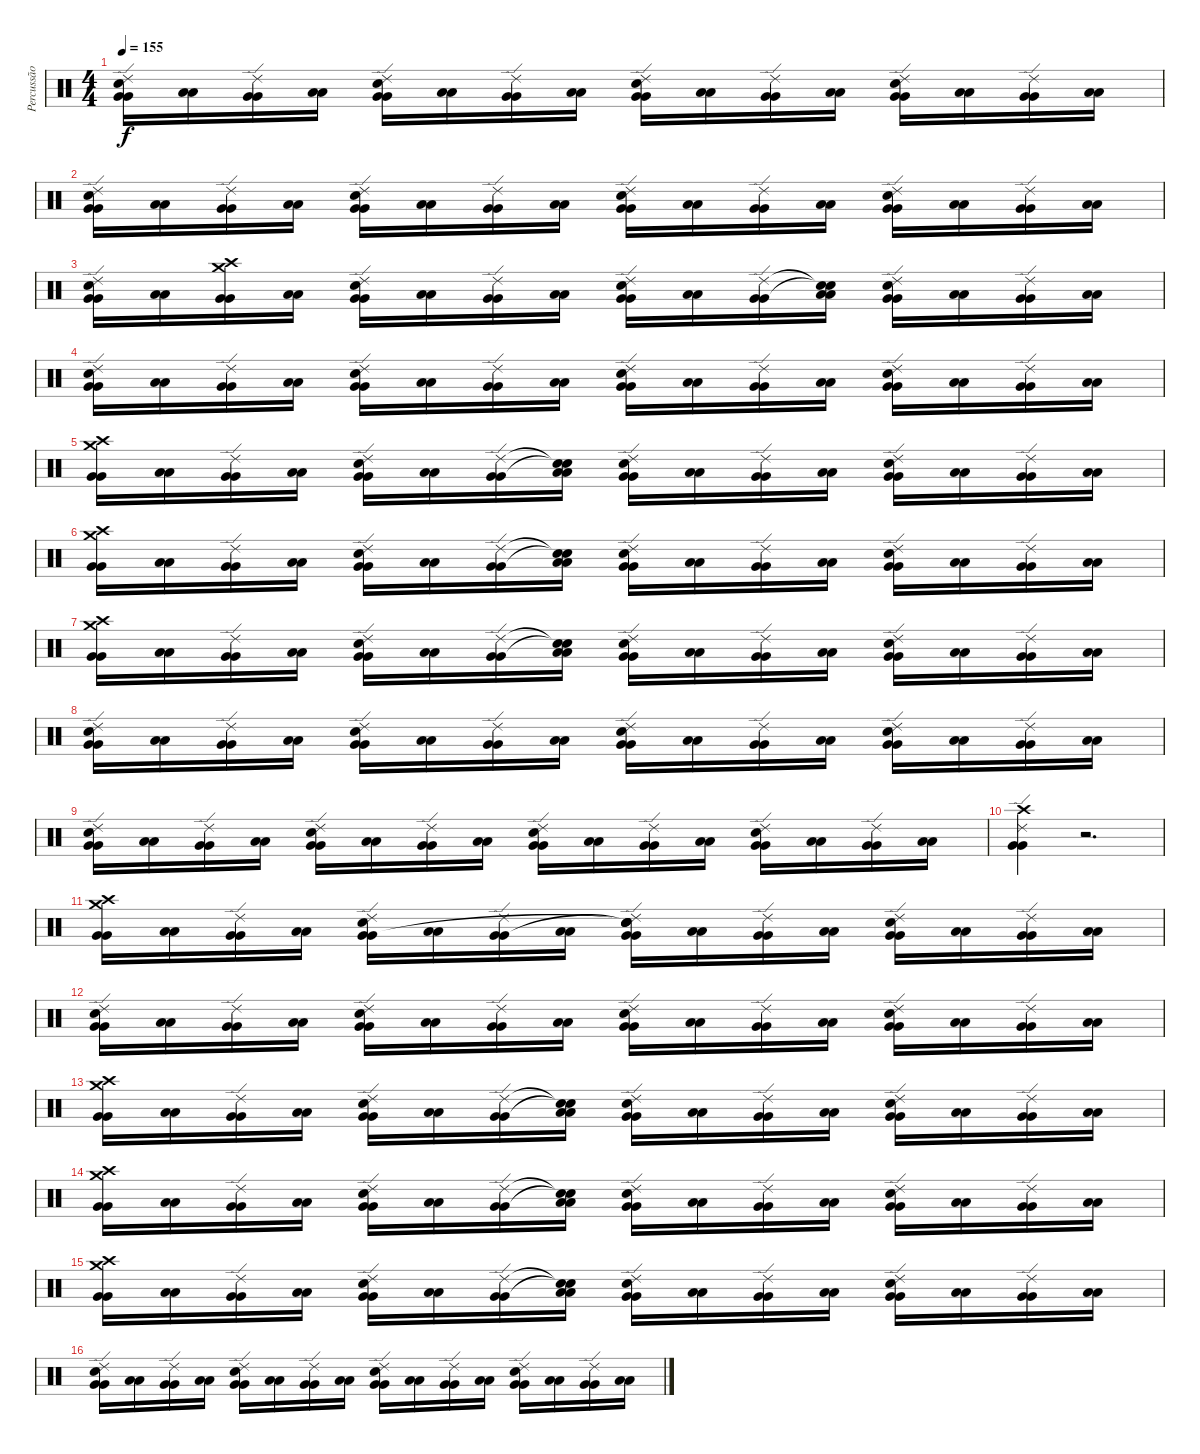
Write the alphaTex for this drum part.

\track ("Percussão" "Percussão") {instrument percussion}
\staff {score}
\articulation defaults
\ts (4 4)
\tempo 155
\clef neutral
\ks c
("Electric Snare (hit)" "Ride (edge) 2" "Very Low Tom (hit)" "Very Low Tom (hit)").16{dy f} ("Low Floor Tom (hit)" "Low Floor Tom (hit)").16 ("Ride (edge) 2" "Very Low Tom (hit)" "Very Low Tom (hit)").16 ("Low Floor Tom (hit)" "Low Floor Tom (hit)").16 ("Electric Snare (hit)" "Ride (edge) 2" "Very Low Tom (hit)" "Very Low Tom (hit)").16 ("Low Floor Tom (hit)" "Low Floor Tom (hit)").16 ("Ride (edge) 2" "Very Low Tom (hit)" "Very Low Tom (hit)").16 ("Low Floor Tom (hit)" "Low Floor Tom (hit)").16 ("Electric Snare (hit)" "Ride (edge) 2" "Very Low Tom (hit)" "Very Low Tom (hit)").16 ("Low Floor Tom (hit)" "Low Floor Tom (hit)").16 ("Ride (edge) 2" "Very Low Tom (hit)" "Very Low Tom (hit)").16 ("Low Floor Tom (hit)" "Low Floor Tom (hit)").16 ("Electric Snare (hit)" "Ride (edge) 2" "Very Low Tom (hit)" "Very Low Tom (hit)").16 ("Low Floor Tom (hit)" "Low Floor Tom (hit)").16 ("Ride (edge) 2" "Very Low Tom (hit)" "Very Low Tom (hit)").16 ("Low Floor Tom (hit)" "Low Floor Tom (hit)").16 |
("Electric Snare (hit)" "Ride (edge) 2" "Very Low Tom (hit)" "Very Low Tom (hit)").16 ("Low Floor Tom (hit)" "Low Floor Tom (hit)").16 ("Ride (edge) 2" "Very Low Tom (hit)" "Very Low Tom (hit)").16 ("Low Floor Tom (hit)" "Low Floor Tom (hit)").16 ("Electric Snare (hit)" "Ride (edge) 2" "Very Low Tom (hit)" "Very Low Tom (hit)").16 ("Low Floor Tom (hit)" "Low Floor Tom (hit)").16 ("Ride (edge) 2" "Very Low Tom (hit)" "Very Low Tom (hit)").16 ("Low Floor Tom (hit)" "Low Floor Tom (hit)").16 ("Electric Snare (hit)" "Ride (edge) 2" "Very Low Tom (hit)" "Very Low Tom (hit)").16 ("Low Floor Tom (hit)" "Low Floor Tom (hit)").16 ("Ride (edge) 2" "Very Low Tom (hit)" "Very Low Tom (hit)").16 ("Low Floor Tom (hit)" "Low Floor Tom (hit)").16 ("Electric Snare (hit)" "Ride (edge) 2" "Very Low Tom (hit)" "Very Low Tom (hit)").16 ("Low Floor Tom (hit)" "Low Floor Tom (hit)").16 ("Ride (edge) 2" "Very Low Tom (hit)" "Very Low Tom (hit)").16 ("Low Floor Tom (hit)" "Low Floor Tom (hit)").16 |
("Electric Snare (hit)" "Ride (edge) 2" "Very Low Tom (hit)" "Very Low Tom (hit)").16 ("Low Floor Tom (hit)" "Low Floor Tom (hit)").16 ("Crash medium (hit)" "Crash high (hit)" "Very Low Tom (hit)" "Very Low Tom (hit)").16 ("Low Floor Tom (hit)" "Low Floor Tom (hit)").16 ("Electric Snare (hit)" "Ride (edge) 2" "Very Low Tom (hit)" "Very Low Tom (hit)").16 ("Low Floor Tom (hit)" "Low Floor Tom (hit)").16 ("Ride (edge) 2" "Very Low Tom (hit)" "Very Low Tom (hit)").16 ("Low Floor Tom (hit)" "Low Floor Tom (hit)").16 ("Electric Snare (hit)" "Ride (edge) 2" "Very Low Tom (hit)" "Very Low Tom (hit)").16 ("Low Floor Tom (hit)" "Low Floor Tom (hit)").16 ("Ride (edge) 2" "Very Low Tom (hit)" "Very Low Tom (hit)").16 ("Snare (hit)"{t} "Snare (hit)"{t} "Low Floor Tom (hit)" "Low Floor Tom (hit)").16 ("Electric Snare (hit)" "Ride (edge) 2" "Very Low Tom (hit)" "Very Low Tom (hit)").16 ("Low Floor Tom (hit)" "Low Floor Tom (hit)").16 ("Ride (edge) 2" "Very Low Tom (hit)" "Very Low Tom (hit)").16 ("Low Floor Tom (hit)" "Low Floor Tom (hit)").16 |
("Electric Snare (hit)" "Ride (edge) 2" "Very Low Tom (hit)" "Very Low Tom (hit)").16 ("Low Floor Tom (hit)" "Low Floor Tom (hit)").16 ("Ride (edge) 2" "Very Low Tom (hit)" "Very Low Tom (hit)").16 ("Low Floor Tom (hit)" "Low Floor Tom (hit)").16 ("Electric Snare (hit)" "Ride (edge) 2" "Very Low Tom (hit)" "Very Low Tom (hit)").16 ("Low Floor Tom (hit)" "Low Floor Tom (hit)").16 ("Ride (edge) 2" "Very Low Tom (hit)" "Very Low Tom (hit)").16 ("Low Floor Tom (hit)" "Low Floor Tom (hit)").16 ("Electric Snare (hit)" "Ride (edge) 2" "Very Low Tom (hit)" "Very Low Tom (hit)").16 ("Low Floor Tom (hit)" "Low Floor Tom (hit)").16 ("Ride (edge) 2" "Very Low Tom (hit)" "Very Low Tom (hit)").16 ("Low Floor Tom (hit)" "Low Floor Tom (hit)").16 ("Electric Snare (hit)" "Ride (edge) 2" "Very Low Tom (hit)" "Very Low Tom (hit)").16 ("Low Floor Tom (hit)" "Low Floor Tom (hit)").16 ("Ride (edge) 2" "Very Low Tom (hit)" "Very Low Tom (hit)").16 ("Low Floor Tom (hit)" "Low Floor Tom (hit)").16 |
("Crash high (hit)" "Crash medium (hit)" "Very Low Tom (hit)" "Very Low Tom (hit)").16 ("Low Floor Tom (hit)" "Low Floor Tom (hit)").16 ("Ride (edge) 2" "Very Low Tom (hit)" "Very Low Tom (hit)").16 ("Low Floor Tom (hit)" "Low Floor Tom (hit)").16 ("Electric Snare (hit)" "Ride (edge) 2" "Very Low Tom (hit)" "Very Low Tom (hit)").16 ("Low Floor Tom (hit)" "Low Floor Tom (hit)").16 ("Ride (edge) 2" "Very Low Tom (hit)" "Very Low Tom (hit)").16 ("Snare (hit)"{t} "Snare (hit)"{t} "Low Floor Tom (hit)" "Low Floor Tom (hit)").16 ("Electric Snare (hit)" "Ride (edge) 2" "Very Low Tom (hit)" "Very Low Tom (hit)").16 ("Low Floor Tom (hit)" "Low Floor Tom (hit)").16 ("Ride (edge) 2" "Very Low Tom (hit)" "Very Low Tom (hit)").16 ("Low Floor Tom (hit)" "Low Floor Tom (hit)").16 ("Electric Snare (hit)" "Ride (edge) 2" "Very Low Tom (hit)" "Very Low Tom (hit)").16 ("Low Floor Tom (hit)" "Low Floor Tom (hit)").16 ("Ride (edge) 2" "Very Low Tom (hit)" "Very Low Tom (hit)").16 ("Low Floor Tom (hit)" "Low Floor Tom (hit)").16 |
("Crash high (hit)" "Crash medium (hit)" "Very Low Tom (hit)" "Very Low Tom (hit)").16 ("Low Floor Tom (hit)" "Low Floor Tom (hit)").16 ("Ride (edge) 2" "Very Low Tom (hit)" "Very Low Tom (hit)").16 ("Low Floor Tom (hit)" "Low Floor Tom (hit)").16 ("Electric Snare (hit)" "Ride (edge) 2" "Very Low Tom (hit)" "Very Low Tom (hit)").16 ("Low Floor Tom (hit)" "Low Floor Tom (hit)").16 ("Ride (edge) 2" "Very Low Tom (hit)" "Very Low Tom (hit)").16 ("Snare (hit)"{t} "Snare (hit)"{t} "Low Floor Tom (hit)" "Low Floor Tom (hit)").16 ("Electric Snare (hit)" "Ride (edge) 2" "Very Low Tom (hit)" "Very Low Tom (hit)").16 ("Low Floor Tom (hit)" "Low Floor Tom (hit)").16 ("Ride (edge) 2" "Very Low Tom (hit)" "Very Low Tom (hit)").16 ("Low Floor Tom (hit)" "Low Floor Tom (hit)").16 ("Electric Snare (hit)" "Ride (edge) 2" "Very Low Tom (hit)" "Very Low Tom (hit)").16 ("Low Floor Tom (hit)" "Low Floor Tom (hit)").16 ("Ride (edge) 2" "Very Low Tom (hit)" "Very Low Tom (hit)").16 ("Low Floor Tom (hit)" "Low Floor Tom (hit)").16 |
("Crash high (hit)" "Crash medium (hit)" "Very Low Tom (hit)" "Very Low Tom (hit)").16 ("Low Floor Tom (hit)" "Low Floor Tom (hit)").16 ("Ride (edge) 2" "Very Low Tom (hit)" "Very Low Tom (hit)").16 ("Low Floor Tom (hit)" "Low Floor Tom (hit)").16 ("Electric Snare (hit)" "Ride (edge) 2" "Very Low Tom (hit)" "Very Low Tom (hit)").16 ("Low Floor Tom (hit)" "Low Floor Tom (hit)").16 ("Ride (edge) 2" "Very Low Tom (hit)" "Very Low Tom (hit)").16 ("Snare (hit)"{t} "Snare (hit)"{t} "Low Floor Tom (hit)" "Low Floor Tom (hit)").16 ("Electric Snare (hit)" "Ride (edge) 2" "Very Low Tom (hit)" "Very Low Tom (hit)").16 ("Low Floor Tom (hit)" "Low Floor Tom (hit)").16 ("Ride (edge) 2" "Very Low Tom (hit)" "Very Low Tom (hit)").16 ("Low Floor Tom (hit)" "Low Floor Tom (hit)").16 ("Electric Snare (hit)" "Ride (edge) 2" "Very Low Tom (hit)" "Very Low Tom (hit)").16 ("Low Floor Tom (hit)" "Low Floor Tom (hit)").16 ("Ride (edge) 2" "Very Low Tom (hit)" "Very Low Tom (hit)").16 ("Low Floor Tom (hit)" "Low Floor Tom (hit)").16 |
("Electric Snare (hit)" "Ride (edge) 2" "Very Low Tom (hit)" "Very Low Tom (hit)").16 ("Low Floor Tom (hit)" "Low Floor Tom (hit)").16 ("Ride (edge) 2" "Very Low Tom (hit)" "Very Low Tom (hit)").16 ("Low Floor Tom (hit)" "Low Floor Tom (hit)").16 ("Electric Snare (hit)" "Ride (edge) 2" "Very Low Tom (hit)" "Very Low Tom (hit)").16 ("Low Floor Tom (hit)" "Low Floor Tom (hit)").16 ("Ride (edge) 2" "Very Low Tom (hit)" "Very Low Tom (hit)").16 ("Low Floor Tom (hit)" "Low Floor Tom (hit)").16 ("Electric Snare (hit)" "Ride (edge) 2" "Very Low Tom (hit)" "Very Low Tom (hit)").16 ("Low Floor Tom (hit)" "Low Floor Tom (hit)").16 ("Ride (edge) 2" "Very Low Tom (hit)" "Very Low Tom (hit)").16 ("Low Floor Tom (hit)" "Low Floor Tom (hit)").16 ("Electric Snare (hit)" "Ride (edge) 2" "Very Low Tom (hit)" "Very Low Tom (hit)").16 ("Low Floor Tom (hit)" "Low Floor Tom (hit)").16 ("Ride (edge) 2" "Very Low Tom (hit)" "Very Low Tom (hit)").16 ("Low Floor Tom (hit)" "Low Floor Tom (hit)").16 |
("Electric Snare (hit)" "Ride (edge) 2" "Very Low Tom (hit)" "Very Low Tom (hit)").16 ("Low Floor Tom (hit)" "Low Floor Tom (hit)").16 ("Ride (edge) 2" "Very Low Tom (hit)" "Very Low Tom (hit)").16 ("Low Floor Tom (hit)" "Low Floor Tom (hit)").16 ("Electric Snare (hit)" "Ride (edge) 2" "Very Low Tom (hit)" "Very Low Tom (hit)").16 ("Low Floor Tom (hit)" "Low Floor Tom (hit)").16 ("Ride (edge) 2" "Very Low Tom (hit)" "Very Low Tom (hit)").16 ("Low Floor Tom (hit)" "Low Floor Tom (hit)").16 ("Electric Snare (hit)" "Ride (edge) 2" "Very Low Tom (hit)" "Very Low Tom (hit)").16 ("Low Floor Tom (hit)" "Low Floor Tom (hit)").16 ("Ride (edge) 2" "Very Low Tom (hit)" "Very Low Tom (hit)").16 ("Low Floor Tom (hit)" "Low Floor Tom (hit)").16 ("Electric Snare (hit)" "Ride (edge) 2" "Very Low Tom (hit)" "Very Low Tom (hit)").16 ("Low Floor Tom (hit)" "Low Floor Tom (hit)").16 ("Ride (edge) 2" "Very Low Tom (hit)" "Very Low Tom (hit)").16 ("Low Floor Tom (hit)" "Low Floor Tom (hit)").16 |
("Crash high (hit)" "Ride (edge) 2" "Very Low Tom (hit)" "Very Low Tom (hit)").4 r.2{d} |
("Crash medium (hit)" "Crash high (hit)" "Very Low Tom (hit)" "Very Low Tom (hit)").16 ("Low Floor Tom (hit)" "Low Floor Tom (hit)").16 ("Ride (edge) 2" "Very Low Tom (hit)" "Very Low Tom (hit)").16 ("Low Floor Tom (hit)" "Low Floor Tom (hit)").16 ("Electric Snare (hit)" "Ride (edge) 2" "Very Low Tom (hit)" "Very Low Tom (hit)").16 ("Low Floor Tom (hit)" "Low Floor Tom (hit)").16 ("Ride (edge) 2" "Very Low Tom (hit)" "Very Low Tom (hit)").16 ("Low Floor Tom (hit)" "Low Floor Tom (hit)").16 ("Electric Snare (hit)" "Ride (edge) 2" "Snare (hit)"{t} "Snare (hit)"{t} "Very Low Tom (hit)" "Very Low Tom (hit)").16 ("Low Floor Tom (hit)" "Low Floor Tom (hit)").16 ("Ride (edge) 2" "Very Low Tom (hit)" "Very Low Tom (hit)").16 ("Low Floor Tom (hit)" "Low Floor Tom (hit)").16 ("Electric Snare (hit)" "Ride (edge) 2" "Very Low Tom (hit)" "Very Low Tom (hit)").16 ("Low Floor Tom (hit)" "Low Floor Tom (hit)").16 ("Ride (edge) 2" "Very Low Tom (hit)" "Very Low Tom (hit)").16 ("Low Floor Tom (hit)" "Low Floor Tom (hit)").16 |
("Electric Snare (hit)" "Ride (edge) 2" "Very Low Tom (hit)" "Very Low Tom (hit)").16 ("Low Floor Tom (hit)" "Low Floor Tom (hit)").16 ("Ride (edge) 2" "Very Low Tom (hit)" "Very Low Tom (hit)").16 ("Low Floor Tom (hit)" "Low Floor Tom (hit)").16 ("Electric Snare (hit)" "Ride (edge) 2" "Very Low Tom (hit)" "Very Low Tom (hit)").16 ("Low Floor Tom (hit)" "Low Floor Tom (hit)").16 ("Ride (edge) 2" "Very Low Tom (hit)" "Very Low Tom (hit)").16 ("Low Floor Tom (hit)" "Low Floor Tom (hit)").16 ("Electric Snare (hit)" "Ride (edge) 2" "Very Low Tom (hit)" "Very Low Tom (hit)").16 ("Low Floor Tom (hit)" "Low Floor Tom (hit)").16 ("Ride (edge) 2" "Very Low Tom (hit)" "Very Low Tom (hit)").16 ("Low Floor Tom (hit)" "Low Floor Tom (hit)").16 ("Electric Snare (hit)" "Ride (edge) 2" "Very Low Tom (hit)" "Very Low Tom (hit)").16 ("Low Floor Tom (hit)" "Low Floor Tom (hit)").16 ("Ride (edge) 2" "Very Low Tom (hit)" "Very Low Tom (hit)").16 ("Low Floor Tom (hit)" "Low Floor Tom (hit)").16 |
("Crash high (hit)" "Crash medium (hit)" "Very Low Tom (hit)" "Very Low Tom (hit)").16 ("Low Floor Tom (hit)" "Low Floor Tom (hit)").16 ("Ride (edge) 2" "Very Low Tom (hit)" "Very Low Tom (hit)").16 ("Low Floor Tom (hit)" "Low Floor Tom (hit)").16 ("Electric Snare (hit)" "Ride (edge) 2" "Very Low Tom (hit)" "Very Low Tom (hit)").16 ("Low Floor Tom (hit)" "Low Floor Tom (hit)").16 ("Ride (edge) 2" "Very Low Tom (hit)" "Very Low Tom (hit)").16 ("Snare (hit)"{t} "Snare (hit)"{t} "Low Floor Tom (hit)" "Low Floor Tom (hit)").16 ("Electric Snare (hit)" "Ride (edge) 2" "Very Low Tom (hit)" "Very Low Tom (hit)").16 ("Low Floor Tom (hit)" "Low Floor Tom (hit)").16 ("Ride (edge) 2" "Very Low Tom (hit)" "Very Low Tom (hit)").16 ("Low Floor Tom (hit)" "Low Floor Tom (hit)").16 ("Electric Snare (hit)" "Ride (edge) 2" "Very Low Tom (hit)" "Very Low Tom (hit)").16 ("Low Floor Tom (hit)" "Low Floor Tom (hit)").16 ("Ride (edge) 2" "Very Low Tom (hit)" "Very Low Tom (hit)").16 ("Low Floor Tom (hit)" "Low Floor Tom (hit)").16 |
("Crash high (hit)" "Crash medium (hit)" "Very Low Tom (hit)" "Very Low Tom (hit)").16 ("Low Floor Tom (hit)" "Low Floor Tom (hit)").16 ("Ride (edge) 2" "Very Low Tom (hit)" "Very Low Tom (hit)").16 ("Low Floor Tom (hit)" "Low Floor Tom (hit)").16 ("Electric Snare (hit)" "Ride (edge) 2" "Very Low Tom (hit)" "Very Low Tom (hit)").16 ("Low Floor Tom (hit)" "Low Floor Tom (hit)").16 ("Ride (edge) 2" "Very Low Tom (hit)" "Very Low Tom (hit)").16 ("Snare (hit)"{t} "Snare (hit)"{t} "Low Floor Tom (hit)" "Low Floor Tom (hit)").16 ("Electric Snare (hit)" "Ride (edge) 2" "Very Low Tom (hit)" "Very Low Tom (hit)").16 ("Low Floor Tom (hit)" "Low Floor Tom (hit)").16 ("Ride (edge) 2" "Very Low Tom (hit)" "Very Low Tom (hit)").16 ("Low Floor Tom (hit)" "Low Floor Tom (hit)").16 ("Electric Snare (hit)" "Ride (edge) 2" "Very Low Tom (hit)" "Very Low Tom (hit)").16 ("Low Floor Tom (hit)" "Low Floor Tom (hit)").16 ("Ride (edge) 2" "Very Low Tom (hit)" "Very Low Tom (hit)").16 ("Low Floor Tom (hit)" "Low Floor Tom (hit)").16 |
("Crash high (hit)" "Crash medium (hit)" "Very Low Tom (hit)" "Very Low Tom (hit)").16 ("Low Floor Tom (hit)" "Low Floor Tom (hit)").16 ("Ride (edge) 2" "Very Low Tom (hit)" "Very Low Tom (hit)").16 ("Low Floor Tom (hit)" "Low Floor Tom (hit)").16 ("Electric Snare (hit)" "Ride (edge) 2" "Very Low Tom (hit)" "Very Low Tom (hit)").16 ("Low Floor Tom (hit)" "Low Floor Tom (hit)").16 ("Ride (edge) 2" "Very Low Tom (hit)" "Very Low Tom (hit)").16 ("Snare (hit)"{t} "Snare (hit)"{t} "Low Floor Tom (hit)" "Low Floor Tom (hit)").16 ("Electric Snare (hit)" "Ride (edge) 2" "Very Low Tom (hit)" "Very Low Tom (hit)").16 ("Low Floor Tom (hit)" "Low Floor Tom (hit)").16 ("Ride (edge) 2" "Very Low Tom (hit)" "Very Low Tom (hit)").16 ("Low Floor Tom (hit)" "Low Floor Tom (hit)").16 ("Electric Snare (hit)" "Ride (edge) 2" "Very Low Tom (hit)" "Very Low Tom (hit)").16 ("Low Floor Tom (hit)" "Low Floor Tom (hit)").16 ("Ride (edge) 2" "Very Low Tom (hit)" "Very Low Tom (hit)").16 ("Low Floor Tom (hit)" "Low Floor Tom (hit)").16 |
("Electric Snare (hit)" "Ride (edge) 2" "Very Low Tom (hit)" "Very Low Tom (hit)").16 ("Low Floor Tom (hit)" "Low Floor Tom (hit)").16 ("Ride (edge) 2" "Very Low Tom (hit)" "Very Low Tom (hit)").16 ("Low Floor Tom (hit)" "Low Floor Tom (hit)").16 ("Electric Snare (hit)" "Ride (edge) 2" "Very Low Tom (hit)" "Very Low Tom (hit)").16 ("Low Floor Tom (hit)" "Low Floor Tom (hit)").16 ("Ride (edge) 2" "Very Low Tom (hit)" "Very Low Tom (hit)").16 ("Low Floor Tom (hit)" "Low Floor Tom (hit)").16 ("Electric Snare (hit)" "Ride (edge) 2" "Very Low Tom (hit)" "Very Low Tom (hit)").16 ("Low Floor Tom (hit)" "Low Floor Tom (hit)").16 ("Ride (edge) 2" "Very Low Tom (hit)" "Very Low Tom (hit)").16 ("Low Floor Tom (hit)" "Low Floor Tom (hit)").16 ("Electric Snare (hit)" "Ride (edge) 2" "Very Low Tom (hit)" "Very Low Tom (hit)").16 ("Low Floor Tom (hit)" "Low Floor Tom (hit)").16 ("Ride (edge) 2" "Very Low Tom (hit)" "Very Low Tom (hit)").16 ("Low Floor Tom (hit)" "Low Floor Tom (hit)").16
